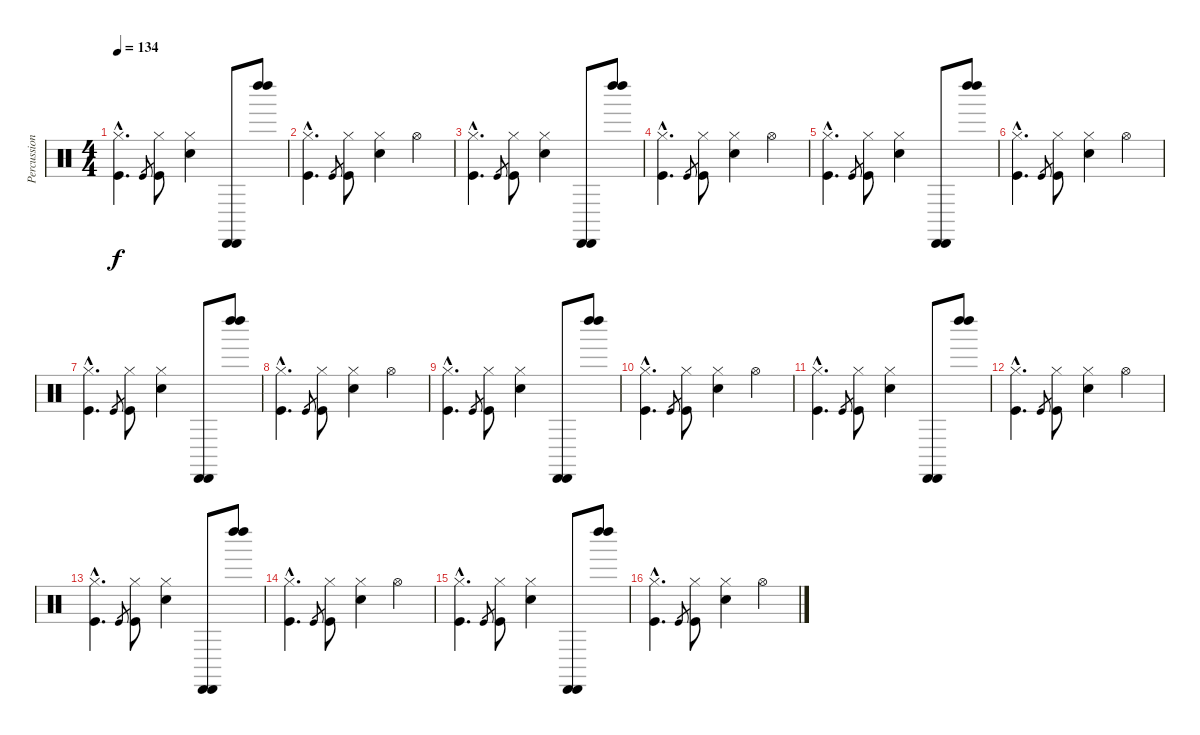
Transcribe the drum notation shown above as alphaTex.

\track ("Percussions" "Percussion") {instrument percussion}
\staff {score}
\articulation defaults
\ts (4 4)
\tempo 134
\clef neutral
\ks c
("Hi-Hat (closed)"{hac} "Kick (hit)"{hac}).4{d dy f} "Kick (hit)".8{gr} ("Hi-Hat (closed)" "Kick (hit)").8 ("Hi-Hat (closed)" "Electric Snare (hit)").4 ("Cabasa (hit)" "Cabasa (hit)").8 ("Left Maraca (hit)" "Left Maraca (hit)").8 |
("Hi-Hat (closed)"{hac} "Kick (hit)"{hac}).4{d} "Kick (hit)".8{gr} ("Hi-Hat (closed)" "Kick (hit)").8 ("Hi-Hat (closed)" "Electric Snare (hit)").4 "Hi-Hat (open)".4 |
("Hi-Hat (closed)"{hac} "Kick (hit)"{hac}).4{d} "Kick (hit)".8{gr} ("Hi-Hat (closed)" "Kick (hit)").8 ("Hi-Hat (closed)" "Electric Snare (hit)").4 ("Cabasa (hit)" "Cabasa (hit)").8 ("Left Maraca (hit)" "Left Maraca (hit)").8 |
("Hi-Hat (closed)"{hac} "Kick (hit)"{hac}).4{d} "Kick (hit)".8{gr} ("Hi-Hat (closed)" "Kick (hit)").8 ("Hi-Hat (closed)" "Electric Snare (hit)").4 "Hi-Hat (open)".4 |
("Hi-Hat (closed)"{hac} "Kick (hit)"{hac}).4{d} "Kick (hit)".8{gr} ("Hi-Hat (closed)" "Kick (hit)").8 ("Hi-Hat (closed)" "Electric Snare (hit)").4 ("Cabasa (hit)" "Cabasa (hit)").8 ("Left Maraca (hit)" "Left Maraca (hit)").8 |
("Hi-Hat (closed)"{hac} "Kick (hit)"{hac}).4{d} "Kick (hit)".8{gr} ("Hi-Hat (closed)" "Kick (hit)").8 ("Hi-Hat (closed)" "Electric Snare (hit)").4 "Hi-Hat (open)".4 |
("Hi-Hat (closed)"{hac} "Kick (hit)"{hac}).4{d} "Kick (hit)".8{gr} ("Hi-Hat (closed)" "Kick (hit)").8 ("Hi-Hat (closed)" "Electric Snare (hit)").4 ("Cabasa (hit)" "Cabasa (hit)").8 ("Left Maraca (hit)" "Left Maraca (hit)").8 |
("Hi-Hat (closed)"{hac} "Kick (hit)"{hac}).4{d} "Kick (hit)".8{gr} ("Hi-Hat (closed)" "Kick (hit)").8 ("Hi-Hat (closed)" "Electric Snare (hit)").4 "Hi-Hat (open)".4 |
("Hi-Hat (closed)"{hac} "Kick (hit)"{hac}).4{d} "Kick (hit)".8{gr} ("Hi-Hat (closed)" "Kick (hit)").8 ("Hi-Hat (closed)" "Electric Snare (hit)").4 ("Cabasa (hit)" "Cabasa (hit)").8 ("Left Maraca (hit)" "Left Maraca (hit)").8 |
("Hi-Hat (closed)"{hac} "Kick (hit)"{hac}).4{d} "Kick (hit)".8{gr} ("Hi-Hat (closed)" "Kick (hit)").8 ("Hi-Hat (closed)" "Electric Snare (hit)").4 "Hi-Hat (open)".4 |
("Hi-Hat (closed)"{hac} "Kick (hit)"{hac}).4{d} "Kick (hit)".8{gr} ("Hi-Hat (closed)" "Kick (hit)").8 ("Hi-Hat (closed)" "Electric Snare (hit)").4 ("Cabasa (hit)" "Cabasa (hit)").8 ("Left Maraca (hit)" "Left Maraca (hit)").8 |
("Hi-Hat (closed)"{hac} "Kick (hit)"{hac}).4{d} "Kick (hit)".8{gr} ("Hi-Hat (closed)" "Kick (hit)").8 ("Hi-Hat (closed)" "Electric Snare (hit)").4 "Hi-Hat (open)".4 |
("Hi-Hat (closed)"{hac} "Kick (hit)"{hac}).4{d} "Kick (hit)".8{gr} ("Hi-Hat (closed)" "Kick (hit)").8 ("Hi-Hat (closed)" "Electric Snare (hit)").4 ("Cabasa (hit)" "Cabasa (hit)").8 ("Left Maraca (hit)" "Left Maraca (hit)").8 |
("Hi-Hat (closed)"{hac} "Kick (hit)"{hac}).4{d} "Kick (hit)".8{gr} ("Hi-Hat (closed)" "Kick (hit)").8 ("Hi-Hat (closed)" "Electric Snare (hit)").4 "Hi-Hat (open)".4 |
("Hi-Hat (closed)"{hac} "Kick (hit)"{hac}).4{d} "Kick (hit)".8{gr} ("Hi-Hat (closed)" "Kick (hit)").8 ("Hi-Hat (closed)" "Electric Snare (hit)").4 ("Cabasa (hit)" "Cabasa (hit)").8 ("Left Maraca (hit)" "Left Maraca (hit)").8 |
("Hi-Hat (closed)"{hac} "Kick (hit)"{hac}).4{d} "Kick (hit)".8{gr} ("Hi-Hat (closed)" "Kick (hit)").8 ("Hi-Hat (closed)" "Electric Snare (hit)").4 "Hi-Hat (open)".4
